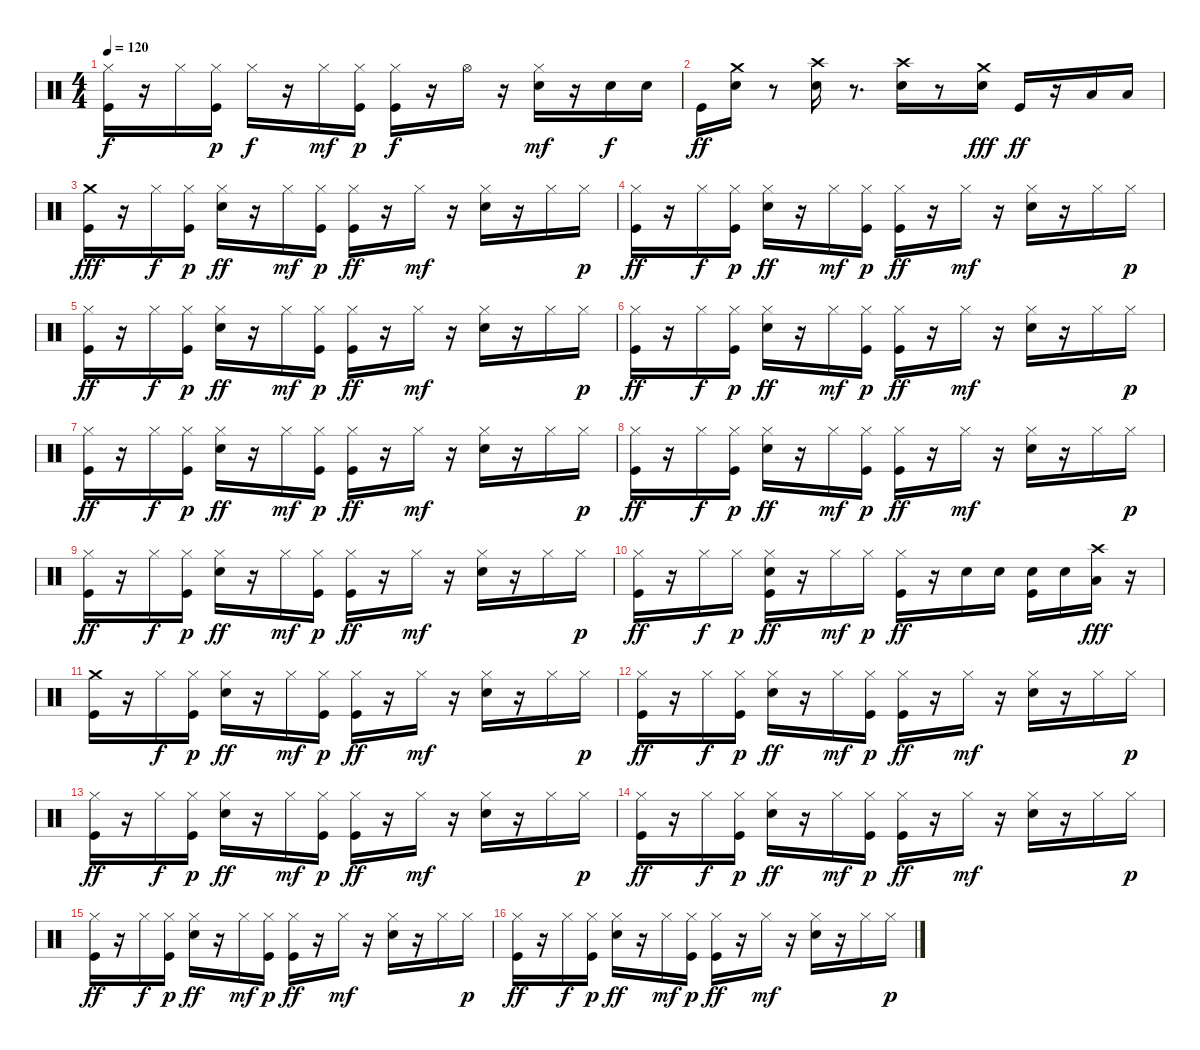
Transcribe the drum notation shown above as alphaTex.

\track "" {instrument percussion}
\staff {score}
\articulation defaults
\ts (4 4)
\tempo 120
\clef neutral
\ks c
("Kick (hit)" "Hi-Hat (closed)").16{dy f} r.16 "Hi-Hat (closed)".16 ("Kick (hit)" "Hi-Hat (closed)").16{dy p} "Hi-Hat (closed)".16{dy f} r.16 "Hi-Hat (closed)".16{dy mf} ("Kick (hit)" "Hi-Hat (closed)").16{dy p} ("Kick (hit)" "Hi-Hat (closed)").16{dy f} r.16 "Hi-Hat (open)".16 r.16 ("Electric Snare (hit)" "Hi-Hat (closed)").16{dy mf} r.16 "Electric Snare (hit)".16{dy f} "Electric Snare (hit)".16 |
"Kick (hit)".16{dy ff} ("Electric Snare (hit)" "Crash medium (hit)").16 r.8 ("Electric Snare (hit)" "Crash high (hit)").16 r.8{d} ("Electric Snare (hit)" "Crash high (hit)").16 r.8 ("Electric Snare (hit)" "Crash medium (hit)").16{dy fff} "Kick (hit)".16{dy ff} r.16 "Low Tom (hit)".16 "Low Tom (hit)".16 |
("Kick (hit)" "Crash medium (hit)").16{dy fff} r.16 "Hi-Hat (closed)".16{dy f} ("Kick (hit)" "Hi-Hat (closed)").16{dy p} ("Electric Snare (hit)" "Hi-Hat (closed)").16{dy ff} r.16 "Hi-Hat (closed)".16{dy mf} ("Kick (hit)" "Hi-Hat (closed)").16{dy p} ("Kick (hit)" "Hi-Hat (closed)").16{dy ff} r.16 "Hi-Hat (closed)".16{dy mf} r.16 ("Electric Snare (hit)" "Hi-Hat (closed)").16 r.16 "Hi-Hat (closed)".16 "Hi-Hat (closed)".16{dy p} |
("Kick (hit)" "Hi-Hat (closed)").16{dy ff} r.16 "Hi-Hat (closed)".16{dy f} ("Kick (hit)" "Hi-Hat (closed)").16{dy p} ("Electric Snare (hit)" "Hi-Hat (closed)").16{dy ff} r.16 "Hi-Hat (closed)".16{dy mf} ("Kick (hit)" "Hi-Hat (closed)").16{dy p} ("Kick (hit)" "Hi-Hat (closed)").16{dy ff} r.16 "Hi-Hat (closed)".16{dy mf} r.16 ("Electric Snare (hit)" "Hi-Hat (closed)").16 r.16 "Hi-Hat (closed)".16 "Hi-Hat (closed)".16{dy p} |
("Kick (hit)" "Hi-Hat (closed)").16{dy ff} r.16 "Hi-Hat (closed)".16{dy f} ("Kick (hit)" "Hi-Hat (closed)").16{dy p} ("Electric Snare (hit)" "Hi-Hat (closed)").16{dy ff} r.16 "Hi-Hat (closed)".16{dy mf} ("Kick (hit)" "Hi-Hat (closed)").16{dy p} ("Kick (hit)" "Hi-Hat (closed)").16{dy ff} r.16 "Hi-Hat (closed)".16{dy mf} r.16 ("Electric Snare (hit)" "Hi-Hat (closed)").16 r.16 "Hi-Hat (closed)".16 "Hi-Hat (closed)".16{dy p} |
("Kick (hit)" "Hi-Hat (closed)").16{dy ff} r.16 "Hi-Hat (closed)".16{dy f} ("Kick (hit)" "Hi-Hat (closed)").16{dy p} ("Electric Snare (hit)" "Hi-Hat (closed)").16{dy ff} r.16 "Hi-Hat (closed)".16{dy mf} ("Kick (hit)" "Hi-Hat (closed)").16{dy p} ("Kick (hit)" "Hi-Hat (closed)").16{dy ff} r.16 "Hi-Hat (closed)".16{dy mf} r.16 ("Electric Snare (hit)" "Hi-Hat (closed)").16 r.16 "Hi-Hat (closed)".16 "Hi-Hat (closed)".16{dy p} |
("Kick (hit)" "Hi-Hat (closed)").16{dy ff} r.16 "Hi-Hat (closed)".16{dy f} ("Kick (hit)" "Hi-Hat (closed)").16{dy p} ("Electric Snare (hit)" "Hi-Hat (closed)").16{dy ff} r.16 "Hi-Hat (closed)".16{dy mf} ("Kick (hit)" "Hi-Hat (closed)").16{dy p} ("Kick (hit)" "Hi-Hat (closed)").16{dy ff} r.16 "Hi-Hat (closed)".16{dy mf} r.16 ("Electric Snare (hit)" "Hi-Hat (closed)").16 r.16 "Hi-Hat (closed)".16 "Hi-Hat (closed)".16{dy p} |
("Kick (hit)" "Hi-Hat (closed)").16{dy ff} r.16 "Hi-Hat (closed)".16{dy f} ("Kick (hit)" "Hi-Hat (closed)").16{dy p} ("Electric Snare (hit)" "Hi-Hat (closed)").16{dy ff} r.16 "Hi-Hat (closed)".16{dy mf} ("Kick (hit)" "Hi-Hat (closed)").16{dy p} ("Kick (hit)" "Hi-Hat (closed)").16{dy ff} r.16 "Hi-Hat (closed)".16{dy mf} r.16 ("Electric Snare (hit)" "Hi-Hat (closed)").16 r.16 "Hi-Hat (closed)".16 "Hi-Hat (closed)".16{dy p} |
("Kick (hit)" "Hi-Hat (closed)").16{dy ff} r.16 "Hi-Hat (closed)".16{dy f} ("Kick (hit)" "Hi-Hat (closed)").16{dy p} ("Electric Snare (hit)" "Hi-Hat (closed)").16{dy ff} r.16 "Hi-Hat (closed)".16{dy mf} ("Kick (hit)" "Hi-Hat (closed)").16{dy p} ("Kick (hit)" "Hi-Hat (closed)").16{dy ff} r.16 "Hi-Hat (closed)".16{dy mf} r.16 ("Electric Snare (hit)" "Hi-Hat (closed)").16 r.16 "Hi-Hat (closed)".16 "Hi-Hat (closed)".16{dy p} |
("Kick (hit)" "Hi-Hat (closed)").16{dy ff} r.16 "Hi-Hat (closed)".16{dy f} "Hi-Hat (closed)".16{dy p} ("Electric Snare (hit)" "Kick (hit)" "Hi-Hat (closed)").16{dy ff} r.16 "Hi-Hat (closed)".16{dy mf} "Hi-Hat (closed)".16{dy p} ("Kick (hit)" "Hi-Hat (closed)").16{dy ff} r.16 "Electric Snare (hit)".16 "Electric Snare (hit)".16 ("Electric Snare (hit)" "Kick (hit)").16 "Electric Snare (hit)".16 ("Low Tom (hit)" "Crash high (hit)").16{dy fff} r.16 |
("Kick (hit)" "Crash medium (hit)").16 r.16 "Hi-Hat (closed)".16{dy f} ("Kick (hit)" "Hi-Hat (closed)").16{dy p} ("Electric Snare (hit)" "Hi-Hat (closed)").16{dy ff} r.16 "Hi-Hat (closed)".16{dy mf} ("Kick (hit)" "Hi-Hat (closed)").16{dy p} ("Kick (hit)" "Hi-Hat (closed)").16{dy ff} r.16 "Hi-Hat (closed)".16{dy mf} r.16 ("Electric Snare (hit)" "Hi-Hat (closed)").16 r.16 "Hi-Hat (closed)".16 "Hi-Hat (closed)".16{dy p} |
("Kick (hit)" "Hi-Hat (closed)").16{dy ff} r.16 "Hi-Hat (closed)".16{dy f} ("Kick (hit)" "Hi-Hat (closed)").16{dy p} ("Electric Snare (hit)" "Hi-Hat (closed)").16{dy ff} r.16 "Hi-Hat (closed)".16{dy mf} ("Kick (hit)" "Hi-Hat (closed)").16{dy p} ("Kick (hit)" "Hi-Hat (closed)").16{dy ff} r.16 "Hi-Hat (closed)".16{dy mf} r.16 ("Electric Snare (hit)" "Hi-Hat (closed)").16 r.16 "Hi-Hat (closed)".16 "Hi-Hat (closed)".16{dy p} |
("Kick (hit)" "Hi-Hat (closed)").16{dy ff} r.16 "Hi-Hat (closed)".16{dy f} ("Kick (hit)" "Hi-Hat (closed)").16{dy p} ("Electric Snare (hit)" "Hi-Hat (closed)").16{dy ff} r.16 "Hi-Hat (closed)".16{dy mf} ("Kick (hit)" "Hi-Hat (closed)").16{dy p} ("Kick (hit)" "Hi-Hat (closed)").16{dy ff} r.16 "Hi-Hat (closed)".16{dy mf} r.16 ("Electric Snare (hit)" "Hi-Hat (closed)").16 r.16 "Hi-Hat (closed)".16 "Hi-Hat (closed)".16{dy p} |
("Kick (hit)" "Hi-Hat (closed)").16{dy ff} r.16 "Hi-Hat (closed)".16{dy f} ("Kick (hit)" "Hi-Hat (closed)").16{dy p} ("Electric Snare (hit)" "Hi-Hat (closed)").16{dy ff} r.16 "Hi-Hat (closed)".16{dy mf} ("Kick (hit)" "Hi-Hat (closed)").16{dy p} ("Kick (hit)" "Hi-Hat (closed)").16{dy ff} r.16 "Hi-Hat (closed)".16{dy mf} r.16 ("Electric Snare (hit)" "Hi-Hat (closed)").16 r.16 "Hi-Hat (closed)".16 "Hi-Hat (closed)".16{dy p} |
("Kick (hit)" "Hi-Hat (closed)").16{dy ff} r.16 "Hi-Hat (closed)".16{dy f} ("Kick (hit)" "Hi-Hat (closed)").16{dy p} ("Electric Snare (hit)" "Hi-Hat (closed)").16{dy ff} r.16 "Hi-Hat (closed)".16{dy mf} ("Kick (hit)" "Hi-Hat (closed)").16{dy p} ("Kick (hit)" "Hi-Hat (closed)").16{dy ff} r.16 "Hi-Hat (closed)".16{dy mf} r.16 ("Electric Snare (hit)" "Hi-Hat (closed)").16 r.16 "Hi-Hat (closed)".16 "Hi-Hat (closed)".16{dy p} |
("Kick (hit)" "Hi-Hat (closed)").16{dy ff} r.16 "Hi-Hat (closed)".16{dy f} ("Kick (hit)" "Hi-Hat (closed)").16{dy p} ("Electric Snare (hit)" "Hi-Hat (closed)").16{dy ff} r.16 "Hi-Hat (closed)".16{dy mf} ("Kick (hit)" "Hi-Hat (closed)").16{dy p} ("Kick (hit)" "Hi-Hat (closed)").16{dy ff} r.16 "Hi-Hat (closed)".16{dy mf} r.16 ("Electric Snare (hit)" "Hi-Hat (closed)").16 r.16 "Hi-Hat (closed)".16 "Hi-Hat (closed)".16{dy p}
